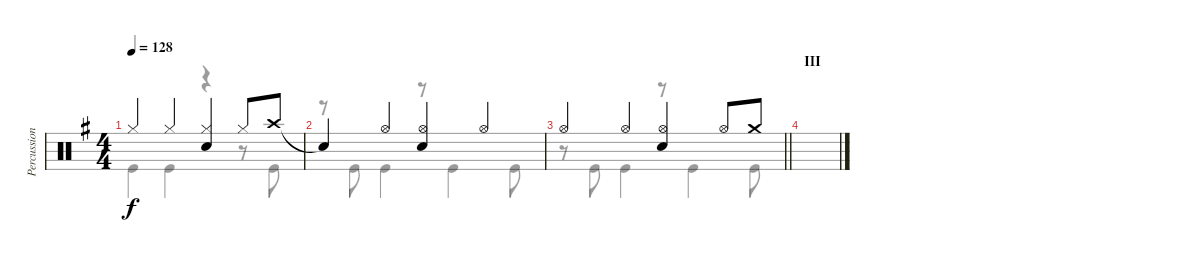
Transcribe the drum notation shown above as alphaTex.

\track ("Percussion" "Percussion") {instrument percussion}
\staff {score}
\articulation defaults
\voice
\ts (4 4)
\tempo 128
\clef neutral
\ks eminor "Hi-Hat (closed)".4{dy f} "Hi-Hat (closed)".4
("Hi-Hat (closed)" "Electric Snare (hit)").4 "Hi-Hat (closed)".8 "Crash high (hit)".8 |
"Snare (hit)"{t}.4 "Hi-Hat (open)".4 ("Hi-Hat (open)" "Electric Snare (hit)").4 "Hi-Hat (open)".4 |
\barLineRight lightlight "Hi-Hat (open)".4 "Hi-Hat (open)".4
("Hi-Hat (open)" "Electric Snare (hit)").4 "Hi-Hat (open)".8 "Crash medium (hit)".8 |
\section ("" "III")
|
|
|
|
|
|
|
|
|
|
|
|
\voice
\clef neutral
\ottava regular
\simile none
\ks eminor "Kick (hit)".4{dy f} "Kick (hit)".4
r.4 r.8 "Kick (hit)".8 |
r.8 "Kick (hit)".8 "Kick (hit)".4 r.8 "Kick (hit)".4 "Kick (hit)".8 |
\barLineRight lightlight
r.8 "Kick (hit)".8 "Kick (hit)".4 r.8 "Kick (hit)".4 "Kick (hit)".8 |
|
|
|
|
|
|
|
|
|
|
|
|
